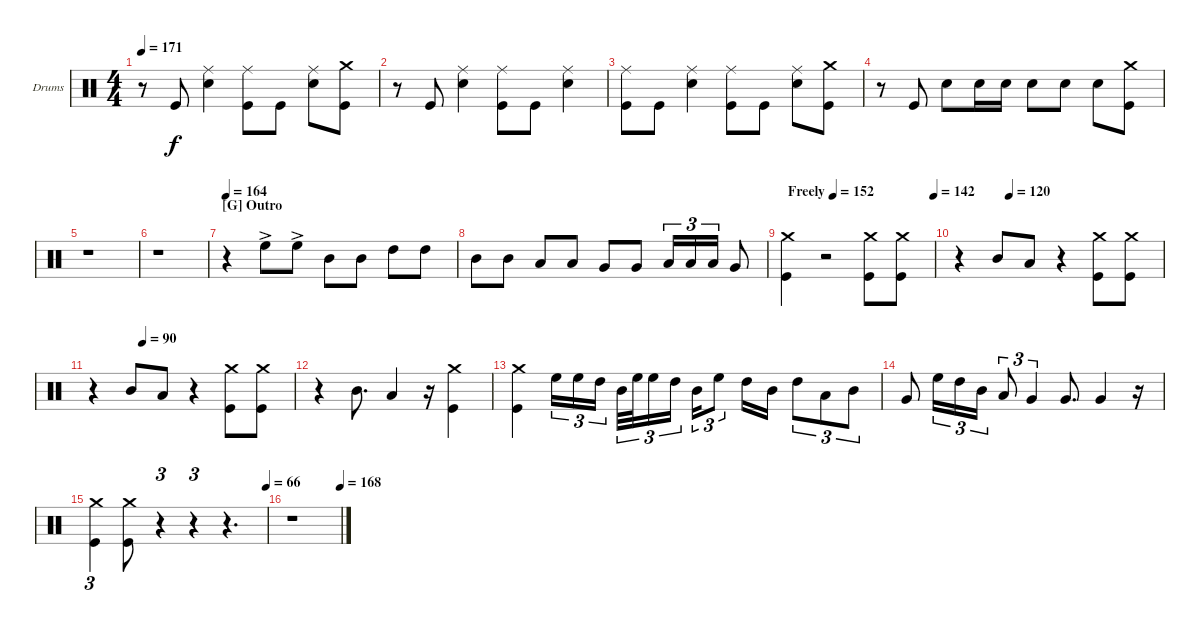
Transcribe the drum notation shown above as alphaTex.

\bracketExtendMode groupsimilarinstruments
\firstSystemTrackNameOrientation horizontal
\otherSystemsTrackNameOrientation horizontal
\track ("Vinny Appice" "Drums") {instrument percussion}
\staff {score}
\articulation defaults
\ts (4 4)
\tempo 171
\clef neutral
\ks c
r.8{dy f} "Kick (hit)".8 ("Ride (middle)" "Snare (hit) 2").4 ("Ride (middle)" "Kick (hit)").8 "Kick (hit)".8 ("Ride (middle)" "Snare (hit) 2").8 ("Crash medium (hit)" "Kick (hit)").8 |
r.8 "Kick (hit)".8 ("Ride (middle)" "Snare (hit) 2").4 ("Ride (middle)" "Kick (hit)").8 "Kick (hit)".8 ("Snare (hit) 2" "Ride (middle)").4 |
("Ride (middle)" "Kick (hit)").8 "Kick (hit)".8 ("Snare (hit) 2" "Ride (middle)").4 ("Kick (hit)" "Ride (middle)").8 "Kick (hit)".8 ("Ride (middle)" "Snare (hit) 2").8 ("Crash medium (hit)" "Kick (hit)").8 |
r.8 "Kick (hit)".8 "Snare (hit) 2".8 "Snare (hit) 2".16 "Snare (hit) 2".16 "Snare (hit) 2".8 "Snare (hit) 2".8 "Snare (hit) 2".8 ("Crash medium (hit)" "Kick (hit)").8 |
r.1 |
r.1 |
\section ("G" "Outro")
\tempo 164
r.4 "High Floor Tom (hit)"{ac}.8 "High Floor Tom (hit)"{ac}.8 "Mid Tom (hit)".8 "Mid Tom (hit)".8 "High Tom (hit)".8 "High Tom (hit)".8 |
"Mid Tom (hit)".8 "Mid Tom (hit)".8 "Low Tom (hit)".8 "Low Tom (hit)".8 "Very Low Tom (hit)".8 "Very Low Tom (hit)".8 "Low Tom (hit)".16{tu (3 2)} "Low Tom (hit)".16{tu (3 2)} "Low Tom (hit)".16{tu (3 2)} "Very Low Tom (hit)".8 |
\tempo (152 "Freely")
\tempo (142 1)
("Crash medium (hit)" "Kick (hit)").4 r.2 ("Crash medium (hit)" "Kick (hit)").8 ("Crash medium (hit)" "Kick (hit)").8 |
\tempo (120 0.25)
r.4 "Mid Tom (hit)".8 "Low Tom (hit)".8 r.4 ("Crash medium (hit)" "Kick (hit)").8 ("Crash medium (hit)" "Kick (hit)").8 |
\tempo (90 0.25)
r.4 "Mid Tom (hit)".8 "Low Tom (hit)".8 r.4 ("Kick (hit)" "Crash medium (hit)").8 ("Kick (hit)" "Crash medium (hit)").8 |
r.4 "Mid Tom (hit)".8{d} "Low Tom (hit)".4 r.16 ("Kick (hit)" "Crash medium (hit)").4 |
("Kick (hit)" "Crash medium (hit)").4 "High Floor Tom (hit)".16{tu (3 2)} "High Floor Tom (hit)".16{tu (3 2)} "High Tom (hit)".16{tu (3 2)} "Mid Tom (hit)".32{tu (3 2)} "High Floor Tom (hit)".32{tu (3 2)} "High Floor Tom (hit)".16{tu (3 2)} "High Tom (hit)".16{tu (3 2)} "Mid Tom (hit)".16{tu (3 2)} "High Floor Tom (hit)".8{tu (3 2)} "High Tom (hit)".16 "Mid Tom (hit)".16 "High Tom (hit)".8{tu (3 2)} "Low Tom (hit)".8{tu (3 2)} "Mid Tom (hit)".8{tu (3 2)} |
"Very Low Tom (hit)".8 "High Floor Tom (hit)".16{tu (3 2)} "High Tom (hit)".16{tu (3 2)} "Mid Tom (hit)".16{tu (3 2)} "Low Tom (hit)".8{tu (3 2)} "Very Low Tom (hit)".4{tu (3 2)} "Very Low Tom (hit)".8{d} "Very Low Tom (hit)".4 r.16 |
\tempo (66 1)
("Kick (hit)" "Crash medium (hit)").4{tu (3 2)} ("Kick (hit)" "Crash medium (hit)").8 r.4{tu (3 2)} r.4{tu (3 2)} r.4{d} |
\tempo (168 1)
r.1
